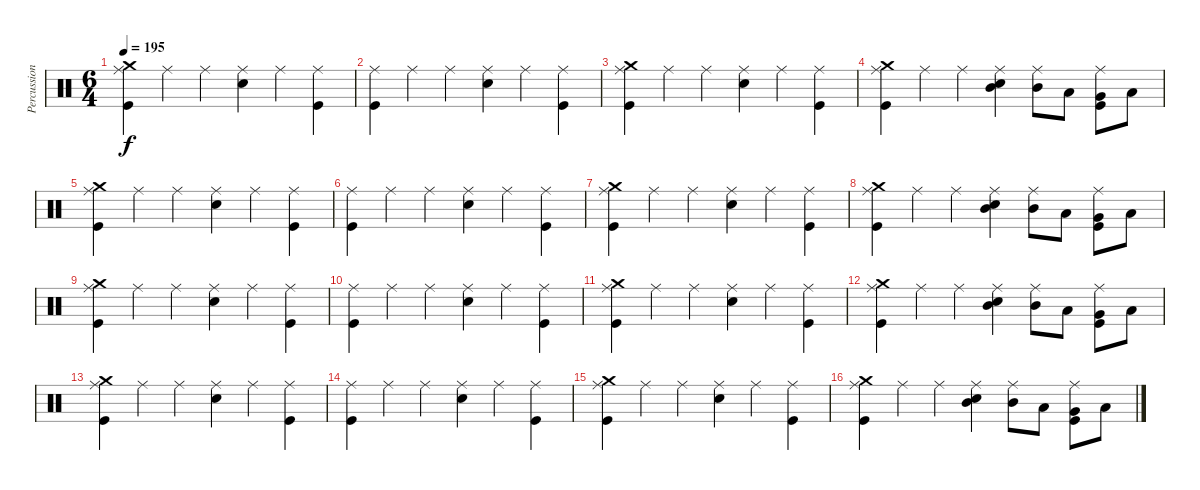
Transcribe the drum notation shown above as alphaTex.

\track ("Percussion" "Percussion") {instrument percussion}
\staff {score}
\articulation defaults
\ts (6 4)
\tempo 195
\clef neutral
\ks c
("Crash medium (hit)" "Ride (middle)" "Kick (hit)").4{dy f} "Ride (middle)".4 "Ride (middle)".4 ("Electric Snare (hit)" "Ride (middle)").4 "Ride (middle)".4 ("Ride (middle)" "Kick (hit)").4 |
("Ride (middle)" "Kick (hit)").4 "Ride (middle)".4 "Ride (middle)".4 ("Electric Snare (hit)" "Ride (middle)").4 "Ride (middle)".4 ("Ride (middle)" "Kick (hit)").4 |
("Crash medium (hit)" "Ride (middle)" "Kick (hit)").4 "Ride (middle)".4 "Ride (middle)".4 ("Electric Snare (hit)" "Ride (middle)").4 "Ride (middle)".4 ("Ride (middle)" "Kick (hit)").4 |
("Crash medium (hit)" "Ride (middle)" "Kick (hit)").4 "Ride (middle)".4 "Ride (middle)".4 ("Mid Tom (hit)" "Electric Snare (hit)" "Ride (middle)").4 ("Mid Tom (hit)" "Ride (middle)").8 "Low Tom (hit)".8 ("Very Low Tom (hit)" "Ride (middle)" "Kick (hit)").8 "Low Floor Tom (hit)".8 |
("Crash medium (hit)" "Ride (middle)" "Kick (hit)").4 "Ride (middle)".4 "Ride (middle)".4 ("Electric Snare (hit)" "Ride (middle)").4 "Ride (middle)".4 ("Ride (middle)" "Kick (hit)").4 |
("Ride (middle)" "Kick (hit)").4 "Ride (middle)".4 "Ride (middle)".4 ("Electric Snare (hit)" "Ride (middle)").4 "Ride (middle)".4 ("Ride (middle)" "Kick (hit)").4 |
("Crash medium (hit)" "Ride (middle)" "Kick (hit)").4 "Ride (middle)".4 "Ride (middle)".4 ("Electric Snare (hit)" "Ride (middle)").4 "Ride (middle)".4 ("Ride (middle)" "Kick (hit)").4 |
("Crash medium (hit)" "Ride (middle)" "Kick (hit)").4 "Ride (middle)".4 "Ride (middle)".4 ("Mid Tom (hit)" "Electric Snare (hit)" "Ride (middle)").4 ("Mid Tom (hit)" "Ride (middle)").8 "Low Tom (hit)".8 ("Very Low Tom (hit)" "Ride (middle)" "Kick (hit)").8 "Low Floor Tom (hit)".8 |
("Crash medium (hit)" "Ride (middle)" "Kick (hit)").4 "Ride (middle)".4 "Ride (middle)".4 ("Electric Snare (hit)" "Ride (middle)").4 "Ride (middle)".4 ("Ride (middle)" "Kick (hit)").4 |
("Ride (middle)" "Kick (hit)").4 "Ride (middle)".4 "Ride (middle)".4 ("Electric Snare (hit)" "Ride (middle)").4 "Ride (middle)".4 ("Ride (middle)" "Kick (hit)").4 |
("Crash medium (hit)" "Ride (middle)" "Kick (hit)").4 "Ride (middle)".4 "Ride (middle)".4 ("Electric Snare (hit)" "Ride (middle)").4 "Ride (middle)".4 ("Ride (middle)" "Kick (hit)").4 |
("Crash medium (hit)" "Ride (middle)" "Kick (hit)").4 "Ride (middle)".4 "Ride (middle)".4 ("Mid Tom (hit)" "Electric Snare (hit)" "Ride (middle)").4 ("Mid Tom (hit)" "Ride (middle)").8 "Low Tom (hit)".8 ("Very Low Tom (hit)" "Ride (middle)" "Kick (hit)").8 "Low Floor Tom (hit)".8 |
("Crash medium (hit)" "Ride (middle)" "Kick (hit)").4 "Ride (middle)".4 "Ride (middle)".4 ("Electric Snare (hit)" "Ride (middle)").4 "Ride (middle)".4 ("Ride (middle)" "Kick (hit)").4 |
("Ride (middle)" "Kick (hit)").4 "Ride (middle)".4 "Ride (middle)".4 ("Electric Snare (hit)" "Ride (middle)").4 "Ride (middle)".4 ("Ride (middle)" "Kick (hit)").4 |
("Crash medium (hit)" "Ride (middle)" "Kick (hit)").4 "Ride (middle)".4 "Ride (middle)".4 ("Electric Snare (hit)" "Ride (middle)").4 "Ride (middle)".4 ("Ride (middle)" "Kick (hit)").4 |
("Crash medium (hit)" "Ride (middle)" "Kick (hit)").4 "Ride (middle)".4 "Ride (middle)".4 ("Mid Tom (hit)" "Electric Snare (hit)" "Ride (middle)").4 ("Mid Tom (hit)" "Ride (middle)").8 "Low Tom (hit)".8 ("Very Low Tom (hit)" "Ride (middle)" "Kick (hit)").8 "Low Floor Tom (hit)".8
